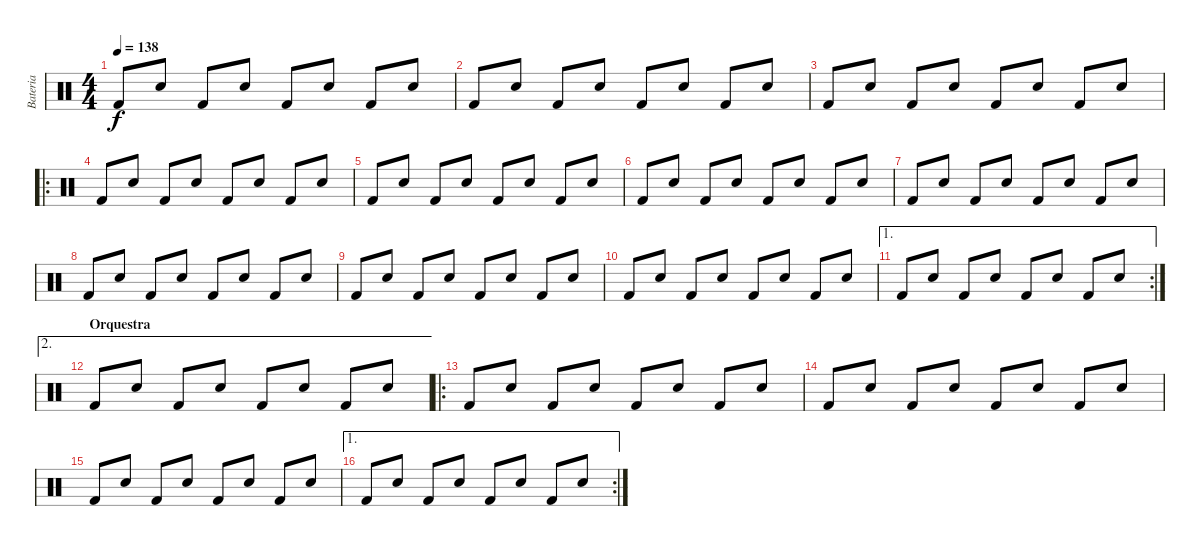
\track ("Bateria" "Bateria") {instrument percussion}
\staff {score}
\articulation defaults
\ts (4 4)
\tempo 138
\clef neutral
\ks c "Kick (hit) 2".8{dy f} "Snare (hit) 2".8 "Kick (hit) 2".8 "Snare (hit) 2".8 "Kick (hit) 2".8 "Snare (hit) 2".8 "Kick (hit) 2".8 "Snare (hit) 2".8
|
"Kick (hit) 2".8 "Snare (hit) 2".8 "Kick (hit) 2".8 "Snare (hit) 2".8 "Kick (hit) 2".8 "Snare (hit) 2".8 "Kick (hit) 2".8 "Snare (hit) 2".8 |
"Kick (hit) 2".8 "Snare (hit) 2".8 "Kick (hit) 2".8 "Snare (hit) 2".8 "Kick (hit) 2".8 "Snare (hit) 2".8 "Kick (hit) 2".8 "Snare (hit) 2".8 |
\ro "Kick (hit) 2".8 "Snare (hit) 2".8 "Kick (hit) 2".8 "Snare (hit) 2".8 "Kick (hit) 2".8 "Snare (hit) 2".8 "Kick (hit) 2".8 "Snare (hit) 2".8
|
"Kick (hit) 2".8 "Snare (hit) 2".8 "Kick (hit) 2".8 "Snare (hit) 2".8 "Kick (hit) 2".8 "Snare (hit) 2".8 "Kick (hit) 2".8 "Snare (hit) 2".8 |
"Kick (hit) 2".8 "Snare (hit) 2".8 "Kick (hit) 2".8 "Snare (hit) 2".8 "Kick (hit) 2".8 "Snare (hit) 2".8 "Kick (hit) 2".8 "Snare (hit) 2".8 |
"Kick (hit) 2".8 "Snare (hit) 2".8 "Kick (hit) 2".8 "Snare (hit) 2".8 "Kick (hit) 2".8 "Snare (hit) 2".8 "Kick (hit) 2".8 "Snare (hit) 2".8 |
"Kick (hit) 2".8 "Snare (hit) 2".8 "Kick (hit) 2".8 "Snare (hit) 2".8 "Kick (hit) 2".8 "Snare (hit) 2".8 "Kick (hit) 2".8 "Snare (hit) 2".8 |
"Kick (hit) 2".8 "Snare (hit) 2".8 "Kick (hit) 2".8 "Snare (hit) 2".8 "Kick (hit) 2".8 "Snare (hit) 2".8 "Kick (hit) 2".8 "Snare (hit) 2".8 |
"Kick (hit) 2".8 "Snare (hit) 2".8 "Kick (hit) 2".8 "Snare (hit) 2".8 "Kick (hit) 2".8 "Snare (hit) 2".8 "Kick (hit) 2".8 "Snare (hit) 2".8 |
\ae 1
\rc 2 "Kick (hit) 2".8 "Snare (hit) 2".8 "Kick (hit) 2".8 "Snare (hit) 2".8 "Kick (hit) 2".8 "Snare (hit) 2".8 "Kick (hit) 2".8 "Snare (hit) 2".8
|
\ae 2
\section ("" "Orquestra")
"Kick (hit) 2".8 "Snare (hit) 2".8 "Kick (hit) 2".8 "Snare (hit) 2".8 "Kick (hit) 2".8 "Snare (hit) 2".8 "Kick (hit) 2".8 "Snare (hit) 2".8 |
\ro "Kick (hit) 2".8 "Snare (hit) 2".8 "Kick (hit) 2".8 "Snare (hit) 2".8 "Kick (hit) 2".8 "Snare (hit) 2".8 "Kick (hit) 2".8 "Snare (hit) 2".8
|
"Kick (hit) 2".8 "Snare (hit) 2".8 "Kick (hit) 2".8 "Snare (hit) 2".8 "Kick (hit) 2".8 "Snare (hit) 2".8 "Kick (hit) 2".8 "Snare (hit) 2".8 |
"Kick (hit) 2".8 "Snare (hit) 2".8 "Kick (hit) 2".8 "Snare (hit) 2".8 "Kick (hit) 2".8 "Snare (hit) 2".8 "Kick (hit) 2".8 "Snare (hit) 2".8 |
\ae 1
\rc 2 "Kick (hit) 2".8 "Snare (hit) 2".8 "Kick (hit) 2".8 "Snare (hit) 2".8 "Kick (hit) 2".8 "Snare (hit) 2".8 "Kick (hit) 2".8 "Snare (hit) 2".8
